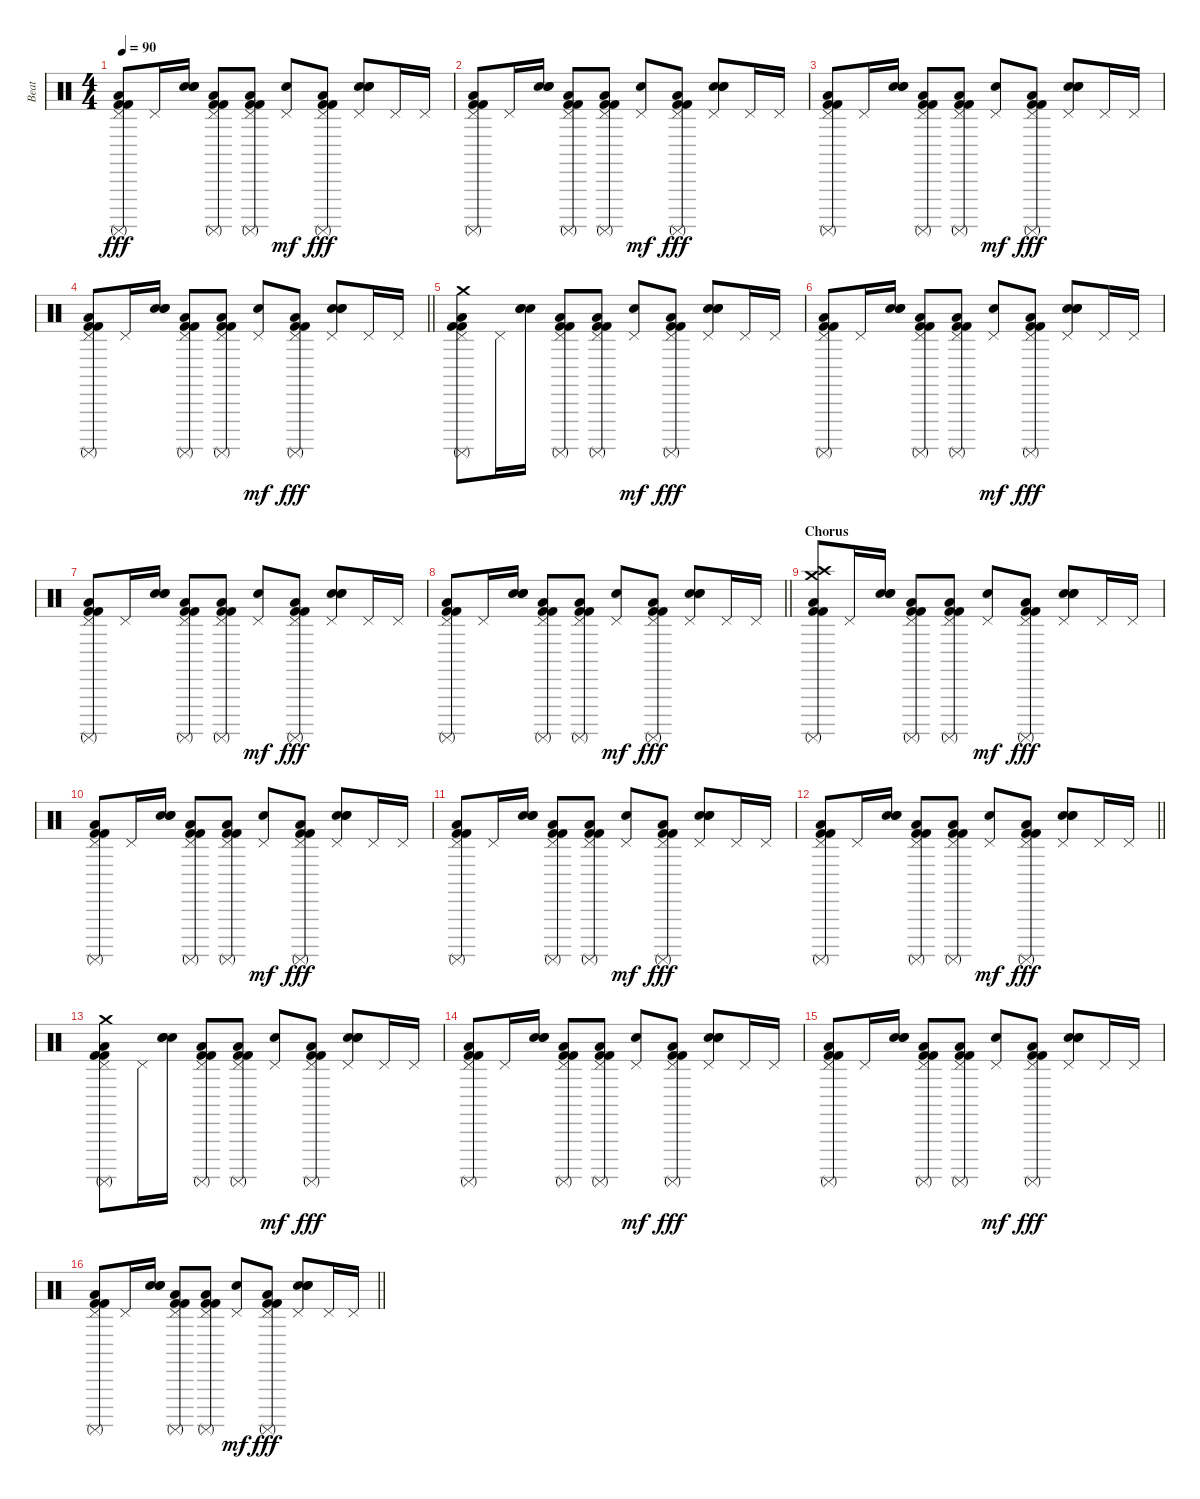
\track ("Beat " "Beat ") {instrument percussion}
\staff {score}
\articulation defaults
\ts (4 4)
\tempo 90
\clef neutral
\ks c
("Pedal Hi-Hat (hit)" "Surdo (mute)" "Low Floor Tom (hit)" "Kick (hit) 2" "Kick (hit) 2").8{dy fff} "Pedal Hi-Hat (hit)".16 ("Electric Snare (hit)" "Electric Snare (hit)" "Electric Snare (hit)").16 ("Pedal Hi-Hat (hit)" "Surdo (mute)" "Low Floor Tom (hit)" "Kick (hit) 2" "Kick (hit) 2").8 ("Pedal Hi-Hat (hit)" "Surdo (mute)" "Low Floor Tom (hit)" "Kick (hit) 2" "Kick (hit) 2").8 ("Pedal Hi-Hat (hit)" "Electric Snare (hit)").8{dy mf} ("Pedal Hi-Hat (hit)" "Surdo (mute)" "Low Floor Tom (hit)" "Kick (hit) 2" "Kick (hit) 2").8{dy fff} ("Pedal Hi-Hat (hit)" "Electric Snare (hit)" "Electric Snare (hit)" "Electric Snare (hit)").8 "Pedal Hi-Hat (hit)".16 "Pedal Hi-Hat (hit)".16 |
("Pedal Hi-Hat (hit)" "Surdo (mute)" "Low Floor Tom (hit)" "Kick (hit) 2" "Kick (hit) 2").8 "Pedal Hi-Hat (hit)".16 ("Electric Snare (hit)" "Electric Snare (hit)" "Electric Snare (hit)").16 ("Pedal Hi-Hat (hit)" "Surdo (mute)" "Low Floor Tom (hit)" "Kick (hit) 2" "Kick (hit) 2").8 ("Pedal Hi-Hat (hit)" "Surdo (mute)" "Low Floor Tom (hit)" "Kick (hit) 2" "Kick (hit) 2").8 ("Pedal Hi-Hat (hit)" "Electric Snare (hit)").8{dy mf} ("Pedal Hi-Hat (hit)" "Surdo (mute)" "Low Floor Tom (hit)" "Kick (hit) 2" "Kick (hit) 2").8{dy fff} ("Pedal Hi-Hat (hit)" "Electric Snare (hit)" "Electric Snare (hit)" "Electric Snare (hit)").8 "Pedal Hi-Hat (hit)".16 "Pedal Hi-Hat (hit)".16 |
("Pedal Hi-Hat (hit)" "Surdo (mute)" "Low Floor Tom (hit)" "Kick (hit) 2" "Kick (hit) 2").8 "Pedal Hi-Hat (hit)".16 ("Electric Snare (hit)" "Electric Snare (hit)" "Electric Snare (hit)").16 ("Pedal Hi-Hat (hit)" "Surdo (mute)" "Low Floor Tom (hit)" "Kick (hit) 2" "Kick (hit) 2").8 ("Pedal Hi-Hat (hit)" "Surdo (mute)" "Low Floor Tom (hit)" "Kick (hit) 2" "Kick (hit) 2").8 ("Pedal Hi-Hat (hit)" "Electric Snare (hit)").8{dy mf} ("Pedal Hi-Hat (hit)" "Surdo (mute)" "Low Floor Tom (hit)" "Kick (hit) 2" "Kick (hit) 2").8{dy fff} ("Pedal Hi-Hat (hit)" "Electric Snare (hit)" "Electric Snare (hit)" "Electric Snare (hit)").8 "Pedal Hi-Hat (hit)".16 "Pedal Hi-Hat (hit)".16 |
\barLineRight lightlight
("Pedal Hi-Hat (hit)" "Surdo (mute)" "Low Floor Tom (hit)" "Kick (hit) 2" "Kick (hit) 2").8 "Pedal Hi-Hat (hit)".16 ("Electric Snare (hit)" "Electric Snare (hit)" "Electric Snare (hit)").16 ("Pedal Hi-Hat (hit)" "Surdo (mute)" "Low Floor Tom (hit)" "Kick (hit) 2" "Kick (hit) 2").8 ("Pedal Hi-Hat (hit)" "Surdo (mute)" "Low Floor Tom (hit)" "Kick (hit) 2" "Kick (hit) 2").8 ("Pedal Hi-Hat (hit)" "Electric Snare (hit)").8{dy mf} ("Pedal Hi-Hat (hit)" "Surdo (mute)" "Low Floor Tom (hit)" "Kick (hit) 2" "Kick (hit) 2").8{dy fff} ("Pedal Hi-Hat (hit)" "Electric Snare (hit)" "Electric Snare (hit)" "Electric Snare (hit)").8 "Pedal Hi-Hat (hit)".16 "Pedal Hi-Hat (hit)".16 |
("Crash medium (hit)" "Pedal Hi-Hat (hit)" "Surdo (mute)" "Low Floor Tom (hit)" "Kick (hit) 2" "Kick (hit) 2").8 "Pedal Hi-Hat (hit)".16 ("Electric Snare (hit)" "Electric Snare (hit)" "Electric Snare (hit)").16 ("Pedal Hi-Hat (hit)" "Surdo (mute)" "Low Floor Tom (hit)" "Kick (hit) 2" "Kick (hit) 2").8 ("Pedal Hi-Hat (hit)" "Surdo (mute)" "Low Floor Tom (hit)" "Kick (hit) 2" "Kick (hit) 2").8 ("Pedal Hi-Hat (hit)" "Electric Snare (hit)").8{dy mf} ("Pedal Hi-Hat (hit)" "Surdo (mute)" "Low Floor Tom (hit)" "Kick (hit) 2" "Kick (hit) 2").8{dy fff} ("Pedal Hi-Hat (hit)" "Electric Snare (hit)" "Electric Snare (hit)" "Electric Snare (hit)").8 "Pedal Hi-Hat (hit)".16 "Pedal Hi-Hat (hit)".16 |
("Pedal Hi-Hat (hit)" "Surdo (mute)" "Low Floor Tom (hit)" "Kick (hit) 2" "Kick (hit) 2").8 "Pedal Hi-Hat (hit)".16 ("Electric Snare (hit)" "Electric Snare (hit)" "Electric Snare (hit)").16 ("Pedal Hi-Hat (hit)" "Surdo (mute)" "Low Floor Tom (hit)" "Kick (hit) 2" "Kick (hit) 2").8 ("Pedal Hi-Hat (hit)" "Surdo (mute)" "Low Floor Tom (hit)" "Kick (hit) 2" "Kick (hit) 2").8 ("Pedal Hi-Hat (hit)" "Electric Snare (hit)").8{dy mf} ("Pedal Hi-Hat (hit)" "Surdo (mute)" "Low Floor Tom (hit)" "Kick (hit) 2" "Kick (hit) 2").8{dy fff} ("Pedal Hi-Hat (hit)" "Electric Snare (hit)" "Electric Snare (hit)" "Electric Snare (hit)").8 "Pedal Hi-Hat (hit)".16 "Pedal Hi-Hat (hit)".16 |
("Pedal Hi-Hat (hit)" "Surdo (mute)" "Low Floor Tom (hit)" "Kick (hit) 2" "Kick (hit) 2").8 "Pedal Hi-Hat (hit)".16 ("Electric Snare (hit)" "Electric Snare (hit)" "Electric Snare (hit)").16 ("Pedal Hi-Hat (hit)" "Surdo (mute)" "Low Floor Tom (hit)" "Kick (hit) 2" "Kick (hit) 2").8 ("Pedal Hi-Hat (hit)" "Surdo (mute)" "Low Floor Tom (hit)" "Kick (hit) 2" "Kick (hit) 2").8 ("Pedal Hi-Hat (hit)" "Electric Snare (hit)").8{dy mf} ("Pedal Hi-Hat (hit)" "Surdo (mute)" "Low Floor Tom (hit)" "Kick (hit) 2" "Kick (hit) 2").8{dy fff} ("Pedal Hi-Hat (hit)" "Electric Snare (hit)" "Electric Snare (hit)" "Electric Snare (hit)").8 "Pedal Hi-Hat (hit)".16 "Pedal Hi-Hat (hit)".16 |
\barLineRight lightlight
("Pedal Hi-Hat (hit)" "Surdo (mute)" "Low Floor Tom (hit)" "Kick (hit) 2" "Kick (hit) 2").8 "Pedal Hi-Hat (hit)".16 ("Electric Snare (hit)" "Electric Snare (hit)" "Electric Snare (hit)").16 ("Pedal Hi-Hat (hit)" "Surdo (mute)" "Low Floor Tom (hit)" "Kick (hit) 2" "Kick (hit) 2").8 ("Pedal Hi-Hat (hit)" "Surdo (mute)" "Low Floor Tom (hit)" "Kick (hit) 2" "Kick (hit) 2").8 ("Pedal Hi-Hat (hit)" "Electric Snare (hit)").8{dy mf} ("Pedal Hi-Hat (hit)" "Surdo (mute)" "Low Floor Tom (hit)" "Kick (hit) 2" "Kick (hit) 2").8{dy fff} ("Pedal Hi-Hat (hit)" "Electric Snare (hit)" "Electric Snare (hit)" "Electric Snare (hit)").8 "Pedal Hi-Hat (hit)".16 "Pedal Hi-Hat (hit)".16 |
\section ("" "Chorus")
("Crash medium (hit)" "Crash high (hit)" "Surdo (mute)" "Low Floor Tom (hit)" "Kick (hit) 2" "Kick (hit) 2").8 "Pedal Hi-Hat (hit)".16 ("Electric Snare (hit)" "Electric Snare (hit)" "Electric Snare (hit)").16 ("Pedal Hi-Hat (hit)" "Surdo (mute)" "Low Floor Tom (hit)" "Kick (hit) 2" "Kick (hit) 2").8 ("Pedal Hi-Hat (hit)" "Surdo (mute)" "Low Floor Tom (hit)" "Kick (hit) 2" "Kick (hit) 2").8 ("Pedal Hi-Hat (hit)" "Electric Snare (hit)").8{dy mf} ("Pedal Hi-Hat (hit)" "Surdo (mute)" "Low Floor Tom (hit)" "Kick (hit) 2" "Kick (hit) 2").8{dy fff} ("Pedal Hi-Hat (hit)" "Electric Snare (hit)" "Electric Snare (hit)" "Electric Snare (hit)").8 "Pedal Hi-Hat (hit)".16 "Pedal Hi-Hat (hit)".16 |
("Pedal Hi-Hat (hit)" "Surdo (mute)" "Low Floor Tom (hit)" "Kick (hit) 2" "Kick (hit) 2").8 "Pedal Hi-Hat (hit)".16 ("Electric Snare (hit)" "Electric Snare (hit)" "Electric Snare (hit)").16 ("Pedal Hi-Hat (hit)" "Surdo (mute)" "Low Floor Tom (hit)" "Kick (hit) 2" "Kick (hit) 2").8 ("Pedal Hi-Hat (hit)" "Surdo (mute)" "Low Floor Tom (hit)" "Kick (hit) 2" "Kick (hit) 2").8 ("Pedal Hi-Hat (hit)" "Electric Snare (hit)").8{dy mf} ("Pedal Hi-Hat (hit)" "Surdo (mute)" "Low Floor Tom (hit)" "Kick (hit) 2" "Kick (hit) 2").8{dy fff} ("Pedal Hi-Hat (hit)" "Electric Snare (hit)" "Electric Snare (hit)" "Electric Snare (hit)").8 "Pedal Hi-Hat (hit)".16 "Pedal Hi-Hat (hit)".16 |
("Pedal Hi-Hat (hit)" "Surdo (mute)" "Low Floor Tom (hit)" "Kick (hit) 2" "Kick (hit) 2").8 "Pedal Hi-Hat (hit)".16 ("Electric Snare (hit)" "Electric Snare (hit)" "Electric Snare (hit)").16 ("Pedal Hi-Hat (hit)" "Surdo (mute)" "Low Floor Tom (hit)" "Kick (hit) 2" "Kick (hit) 2").8 ("Pedal Hi-Hat (hit)" "Surdo (mute)" "Low Floor Tom (hit)" "Kick (hit) 2" "Kick (hit) 2").8 ("Pedal Hi-Hat (hit)" "Electric Snare (hit)").8{dy mf} ("Pedal Hi-Hat (hit)" "Surdo (mute)" "Low Floor Tom (hit)" "Kick (hit) 2" "Kick (hit) 2").8{dy fff} ("Pedal Hi-Hat (hit)" "Electric Snare (hit)" "Electric Snare (hit)" "Electric Snare (hit)").8 "Pedal Hi-Hat (hit)".16 "Pedal Hi-Hat (hit)".16 |
\barLineRight lightlight
("Pedal Hi-Hat (hit)" "Surdo (mute)" "Low Floor Tom (hit)" "Kick (hit) 2" "Kick (hit) 2").8 "Pedal Hi-Hat (hit)".16 ("Electric Snare (hit)" "Electric Snare (hit)" "Electric Snare (hit)").16 ("Pedal Hi-Hat (hit)" "Surdo (mute)" "Low Floor Tom (hit)" "Kick (hit) 2" "Kick (hit) 2").8 ("Pedal Hi-Hat (hit)" "Surdo (mute)" "Low Floor Tom (hit)" "Kick (hit) 2" "Kick (hit) 2").8 ("Pedal Hi-Hat (hit)" "Electric Snare (hit)").8{dy mf} ("Pedal Hi-Hat (hit)" "Surdo (mute)" "Low Floor Tom (hit)" "Kick (hit) 2" "Kick (hit) 2").8{dy fff} ("Pedal Hi-Hat (hit)" "Electric Snare (hit)" "Electric Snare (hit)" "Electric Snare (hit)").8 "Pedal Hi-Hat (hit)".16 "Pedal Hi-Hat (hit)".16 |
("Crash medium (hit)" "Pedal Hi-Hat (hit)" "Surdo (mute)" "Low Floor Tom (hit)" "Kick (hit) 2" "Kick (hit) 2").8 "Pedal Hi-Hat (hit)".16 ("Electric Snare (hit)" "Electric Snare (hit)" "Electric Snare (hit)").16 ("Pedal Hi-Hat (hit)" "Surdo (mute)" "Low Floor Tom (hit)" "Kick (hit) 2" "Kick (hit) 2").8 ("Pedal Hi-Hat (hit)" "Surdo (mute)" "Low Floor Tom (hit)" "Kick (hit) 2" "Kick (hit) 2").8 ("Pedal Hi-Hat (hit)" "Electric Snare (hit)").8{dy mf} ("Pedal Hi-Hat (hit)" "Surdo (mute)" "Low Floor Tom (hit)" "Kick (hit) 2" "Kick (hit) 2").8{dy fff} ("Pedal Hi-Hat (hit)" "Electric Snare (hit)" "Electric Snare (hit)" "Electric Snare (hit)").8 "Pedal Hi-Hat (hit)".16 "Pedal Hi-Hat (hit)".16 |
("Pedal Hi-Hat (hit)" "Surdo (mute)" "Low Floor Tom (hit)" "Kick (hit) 2" "Kick (hit) 2").8 "Pedal Hi-Hat (hit)".16 ("Electric Snare (hit)" "Electric Snare (hit)" "Electric Snare (hit)").16 ("Pedal Hi-Hat (hit)" "Surdo (mute)" "Low Floor Tom (hit)" "Kick (hit) 2" "Kick (hit) 2").8 ("Pedal Hi-Hat (hit)" "Surdo (mute)" "Low Floor Tom (hit)" "Kick (hit) 2" "Kick (hit) 2").8 ("Pedal Hi-Hat (hit)" "Electric Snare (hit)").8{dy mf} ("Pedal Hi-Hat (hit)" "Surdo (mute)" "Low Floor Tom (hit)" "Kick (hit) 2" "Kick (hit) 2").8{dy fff} ("Pedal Hi-Hat (hit)" "Electric Snare (hit)" "Electric Snare (hit)" "Electric Snare (hit)").8 "Pedal Hi-Hat (hit)".16 "Pedal Hi-Hat (hit)".16 |
("Pedal Hi-Hat (hit)" "Surdo (mute)" "Low Floor Tom (hit)" "Kick (hit) 2" "Kick (hit) 2").8 "Pedal Hi-Hat (hit)".16 ("Electric Snare (hit)" "Electric Snare (hit)" "Electric Snare (hit)").16 ("Pedal Hi-Hat (hit)" "Surdo (mute)" "Low Floor Tom (hit)" "Kick (hit) 2" "Kick (hit) 2").8 ("Pedal Hi-Hat (hit)" "Surdo (mute)" "Low Floor Tom (hit)" "Kick (hit) 2" "Kick (hit) 2").8 ("Pedal Hi-Hat (hit)" "Electric Snare (hit)").8{dy mf} ("Pedal Hi-Hat (hit)" "Surdo (mute)" "Low Floor Tom (hit)" "Kick (hit) 2" "Kick (hit) 2").8{dy fff} ("Pedal Hi-Hat (hit)" "Electric Snare (hit)" "Electric Snare (hit)" "Electric Snare (hit)").8 "Pedal Hi-Hat (hit)".16 "Pedal Hi-Hat (hit)".16 |
\barLineRight lightlight
("Pedal Hi-Hat (hit)" "Surdo (mute)" "Low Floor Tom (hit)" "Kick (hit) 2" "Kick (hit) 2").8 "Pedal Hi-Hat (hit)".16 ("Electric Snare (hit)" "Electric Snare (hit)" "Electric Snare (hit)").16 ("Pedal Hi-Hat (hit)" "Surdo (mute)" "Low Floor Tom (hit)" "Kick (hit) 2" "Kick (hit) 2").8 ("Pedal Hi-Hat (hit)" "Surdo (mute)" "Low Floor Tom (hit)" "Kick (hit) 2" "Kick (hit) 2").8 ("Pedal Hi-Hat (hit)" "Electric Snare (hit)").8{dy mf} ("Pedal Hi-Hat (hit)" "Surdo (mute)" "Low Floor Tom (hit)" "Kick (hit) 2" "Kick (hit) 2").8{dy fff} ("Pedal Hi-Hat (hit)" "Electric Snare (hit)" "Electric Snare (hit)" "Electric Snare (hit)").8 "Pedal Hi-Hat (hit)".16 "Pedal Hi-Hat (hit)".16
